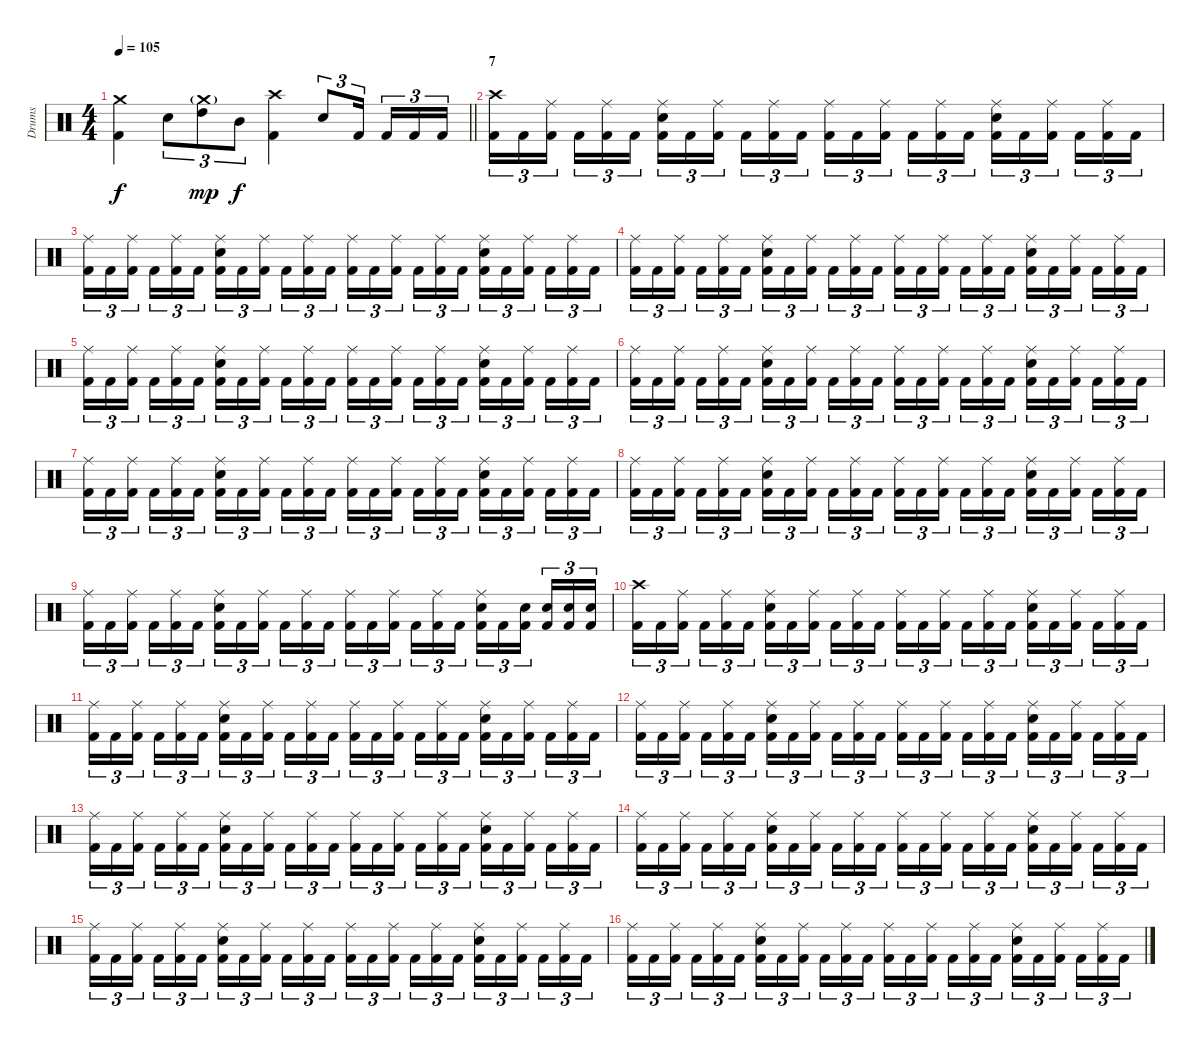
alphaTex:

\track ("Drums" "Drums") {instrument percussion}
\staff {score}
\articulation defaults
\ts (4 4)
\tempo 105
\clef neutral
\barLineRight lightlight
\ks c
("Crash medium (hit)" "Kick (hit) 2").4{dy f} "Electric Snare (hit)".8{tu (3 2)} ("Crash medium (hit)"{g} "High Tom (hit)").8{tu (3 2) dy mp} "Mid Tom (hit)".8{tu (3 2) dy f} ("Crash high (hit)" "Kick (hit) 2").4 "Electric Snare (hit)".8{tu (3 2)} "Kick (hit) 2".16{tu (3 2) beam splitsecondary} "Kick (hit) 2".16{tu (3 2)} "Kick (hit) 2".16{tu (3 2)} "Kick (hit) 2".16{tu (3 2)} |
\section ("" "7")
("Crash high (hit)" "Kick (hit) 2").16{tu (3 2)} "Kick (hit) 2".16{tu (3 2)} ("Ride (middle)" "Kick (hit) 2").16{tu (3 2) beam splitsecondary} "Kick (hit) 2".16{tu (3 2)} ("Ride (middle)" "Kick (hit) 2").16{tu (3 2)} "Kick (hit) 2".16{tu (3 2)} ("Ride (middle)" "Electric Snare (hit)" "Kick (hit) 2").16{tu (3 2)} "Kick (hit) 2".16{tu (3 2)} ("Ride (middle)" "Kick (hit) 2").16{tu (3 2) beam splitsecondary} "Kick (hit) 2".16{tu (3 2)} ("Ride (middle)" "Kick (hit) 2").16{tu (3 2)} "Kick (hit) 2".16{tu (3 2)} ("Ride (middle)" "Kick (hit) 2").16{tu (3 2)} "Kick (hit) 2".16{tu (3 2)} ("Ride (middle)" "Kick (hit) 2").16{tu (3 2) beam splitsecondary} "Kick (hit) 2".16{tu (3 2)} ("Ride (middle)" "Kick (hit) 2").16{tu (3 2)} "Kick (hit) 2".16{tu (3 2)} ("Ride (middle)" "Electric Snare (hit)" "Kick (hit) 2").16{tu (3 2)} "Kick (hit) 2".16{tu (3 2)} ("Ride (middle)" "Kick (hit) 2").16{tu (3 2) beam splitsecondary} "Kick (hit) 2".16{tu (3 2)} ("Ride (middle)" "Kick (hit) 2").16{tu (3 2)} "Kick (hit) 2".16{tu (3 2)} |
("Ride (middle)" "Kick (hit) 2").16{tu (3 2)} "Kick (hit) 2".16{tu (3 2)} ("Ride (middle)" "Kick (hit) 2").16{tu (3 2) beam splitsecondary} "Kick (hit) 2".16{tu (3 2)} ("Ride (middle)" "Kick (hit) 2").16{tu (3 2)} "Kick (hit) 2".16{tu (3 2)} ("Ride (middle)" "Electric Snare (hit)" "Kick (hit) 2").16{tu (3 2)} "Kick (hit) 2".16{tu (3 2)} ("Ride (middle)" "Kick (hit) 2").16{tu (3 2) beam splitsecondary} "Kick (hit) 2".16{tu (3 2)} ("Ride (middle)" "Kick (hit) 2").16{tu (3 2)} "Kick (hit) 2".16{tu (3 2)} ("Ride (middle)" "Kick (hit) 2").16{tu (3 2)} "Kick (hit) 2".16{tu (3 2)} ("Ride (middle)" "Kick (hit) 2").16{tu (3 2) beam splitsecondary} "Kick (hit) 2".16{tu (3 2)} ("Ride (middle)" "Kick (hit) 2").16{tu (3 2)} "Kick (hit) 2".16{tu (3 2)} ("Ride (middle)" "Electric Snare (hit)" "Kick (hit) 2").16{tu (3 2)} "Kick (hit) 2".16{tu (3 2)} ("Ride (middle)" "Kick (hit) 2").16{tu (3 2) beam splitsecondary} "Kick (hit) 2".16{tu (3 2)} ("Ride (middle)" "Kick (hit) 2").16{tu (3 2)} "Kick (hit) 2".16{tu (3 2)} |
("Ride (middle)" "Kick (hit) 2").16{tu (3 2)} "Kick (hit) 2".16{tu (3 2)} ("Ride (middle)" "Kick (hit) 2").16{tu (3 2) beam splitsecondary} "Kick (hit) 2".16{tu (3 2)} ("Ride (middle)" "Kick (hit) 2").16{tu (3 2)} "Kick (hit) 2".16{tu (3 2)} ("Ride (middle)" "Electric Snare (hit)" "Kick (hit) 2").16{tu (3 2)} "Kick (hit) 2".16{tu (3 2)} ("Ride (middle)" "Kick (hit) 2").16{tu (3 2) beam splitsecondary} "Kick (hit) 2".16{tu (3 2)} ("Ride (middle)" "Kick (hit) 2").16{tu (3 2)} "Kick (hit) 2".16{tu (3 2)} ("Ride (middle)" "Kick (hit) 2").16{tu (3 2)} "Kick (hit) 2".16{tu (3 2)} ("Ride (middle)" "Kick (hit) 2").16{tu (3 2) beam splitsecondary} "Kick (hit) 2".16{tu (3 2)} ("Ride (middle)" "Kick (hit) 2").16{tu (3 2)} "Kick (hit) 2".16{tu (3 2)} ("Ride (middle)" "Electric Snare (hit)" "Kick (hit) 2").16{tu (3 2)} "Kick (hit) 2".16{tu (3 2)} ("Ride (middle)" "Kick (hit) 2").16{tu (3 2) beam splitsecondary} "Kick (hit) 2".16{tu (3 2)} ("Ride (middle)" "Kick (hit) 2").16{tu (3 2)} "Kick (hit) 2".16{tu (3 2)} |
("Ride (middle)" "Kick (hit) 2").16{tu (3 2)} "Kick (hit) 2".16{tu (3 2)} ("Ride (middle)" "Kick (hit) 2").16{tu (3 2) beam splitsecondary} "Kick (hit) 2".16{tu (3 2)} ("Ride (middle)" "Kick (hit) 2").16{tu (3 2)} "Kick (hit) 2".16{tu (3 2)} ("Ride (middle)" "Electric Snare (hit)" "Kick (hit) 2").16{tu (3 2)} "Kick (hit) 2".16{tu (3 2)} ("Ride (middle)" "Kick (hit) 2").16{tu (3 2) beam splitsecondary} "Kick (hit) 2".16{tu (3 2)} ("Ride (middle)" "Kick (hit) 2").16{tu (3 2)} "Kick (hit) 2".16{tu (3 2)} ("Ride (middle)" "Kick (hit) 2").16{tu (3 2)} "Kick (hit) 2".16{tu (3 2)} ("Ride (middle)" "Kick (hit) 2").16{tu (3 2) beam splitsecondary} "Kick (hit) 2".16{tu (3 2)} ("Ride (middle)" "Kick (hit) 2").16{tu (3 2)} "Kick (hit) 2".16{tu (3 2)} ("Ride (middle)" "Electric Snare (hit)" "Kick (hit) 2").16{tu (3 2)} "Kick (hit) 2".16{tu (3 2)} ("Ride (middle)" "Kick (hit) 2").16{tu (3 2) beam splitsecondary} "Kick (hit) 2".16{tu (3 2)} ("Ride (middle)" "Kick (hit) 2").16{tu (3 2)} "Kick (hit) 2".16{tu (3 2)} |
("Ride (middle)" "Kick (hit) 2").16{tu (3 2)} "Kick (hit) 2".16{tu (3 2)} ("Ride (middle)" "Kick (hit) 2").16{tu (3 2) beam splitsecondary} "Kick (hit) 2".16{tu (3 2)} ("Ride (middle)" "Kick (hit) 2").16{tu (3 2)} "Kick (hit) 2".16{tu (3 2)} ("Ride (middle)" "Electric Snare (hit)" "Kick (hit) 2").16{tu (3 2)} "Kick (hit) 2".16{tu (3 2)} ("Ride (middle)" "Kick (hit) 2").16{tu (3 2) beam splitsecondary} "Kick (hit) 2".16{tu (3 2)} ("Ride (middle)" "Kick (hit) 2").16{tu (3 2)} "Kick (hit) 2".16{tu (3 2)} ("Ride (middle)" "Kick (hit) 2").16{tu (3 2)} "Kick (hit) 2".16{tu (3 2)} ("Ride (middle)" "Kick (hit) 2").16{tu (3 2) beam splitsecondary} "Kick (hit) 2".16{tu (3 2)} ("Ride (middle)" "Kick (hit) 2").16{tu (3 2)} "Kick (hit) 2".16{tu (3 2)} ("Ride (middle)" "Electric Snare (hit)" "Kick (hit) 2").16{tu (3 2)} "Kick (hit) 2".16{tu (3 2)} ("Ride (middle)" "Kick (hit) 2").16{tu (3 2) beam splitsecondary} "Kick (hit) 2".16{tu (3 2)} ("Ride (middle)" "Kick (hit) 2").16{tu (3 2)} "Kick (hit) 2".16{tu (3 2)} |
("Ride (middle)" "Kick (hit) 2").16{tu (3 2)} "Kick (hit) 2".16{tu (3 2)} ("Ride (middle)" "Kick (hit) 2").16{tu (3 2) beam splitsecondary} "Kick (hit) 2".16{tu (3 2)} ("Ride (middle)" "Kick (hit) 2").16{tu (3 2)} "Kick (hit) 2".16{tu (3 2)} ("Ride (middle)" "Electric Snare (hit)" "Kick (hit) 2").16{tu (3 2)} "Kick (hit) 2".16{tu (3 2)} ("Ride (middle)" "Kick (hit) 2").16{tu (3 2) beam splitsecondary} "Kick (hit) 2".16{tu (3 2)} ("Ride (middle)" "Kick (hit) 2").16{tu (3 2)} "Kick (hit) 2".16{tu (3 2)} ("Ride (middle)" "Kick (hit) 2").16{tu (3 2)} "Kick (hit) 2".16{tu (3 2)} ("Ride (middle)" "Kick (hit) 2").16{tu (3 2) beam splitsecondary} "Kick (hit) 2".16{tu (3 2)} ("Ride (middle)" "Kick (hit) 2").16{tu (3 2)} "Kick (hit) 2".16{tu (3 2)} ("Ride (middle)" "Electric Snare (hit)" "Kick (hit) 2").16{tu (3 2)} "Kick (hit) 2".16{tu (3 2)} ("Ride (middle)" "Kick (hit) 2").16{tu (3 2) beam splitsecondary} "Kick (hit) 2".16{tu (3 2)} ("Ride (middle)" "Kick (hit) 2").16{tu (3 2)} "Kick (hit) 2".16{tu (3 2)} |
("Ride (middle)" "Kick (hit) 2").16{tu (3 2)} "Kick (hit) 2".16{tu (3 2)} ("Ride (middle)" "Kick (hit) 2").16{tu (3 2) beam splitsecondary} "Kick (hit) 2".16{tu (3 2)} ("Ride (middle)" "Kick (hit) 2").16{tu (3 2)} "Kick (hit) 2".16{tu (3 2)} ("Ride (middle)" "Electric Snare (hit)" "Kick (hit) 2").16{tu (3 2)} "Kick (hit) 2".16{tu (3 2)} ("Ride (middle)" "Kick (hit) 2").16{tu (3 2) beam splitsecondary} "Kick (hit) 2".16{tu (3 2)} ("Ride (middle)" "Kick (hit) 2").16{tu (3 2)} "Kick (hit) 2".16{tu (3 2)} ("Ride (middle)" "Kick (hit) 2").16{tu (3 2)} "Kick (hit) 2".16{tu (3 2)} ("Ride (middle)" "Kick (hit) 2").16{tu (3 2) beam splitsecondary} "Kick (hit) 2".16{tu (3 2)} ("Ride (middle)" "Kick (hit) 2").16{tu (3 2)} "Kick (hit) 2".16{tu (3 2)} ("Ride (middle)" "Electric Snare (hit)" "Kick (hit) 2").16{tu (3 2)} "Kick (hit) 2".16{tu (3 2)} ("Ride (middle)" "Kick (hit) 2").16{tu (3 2) beam splitsecondary} "Kick (hit) 2".16{tu (3 2)} ("Ride (middle)" "Kick (hit) 2").16{tu (3 2)} "Kick (hit) 2".16{tu (3 2)} |
("Ride (middle)" "Kick (hit) 2").16{tu (3 2)} "Kick (hit) 2".16{tu (3 2)} ("Ride (middle)" "Kick (hit) 2").16{tu (3 2) beam splitsecondary} "Kick (hit) 2".16{tu (3 2)} ("Ride (middle)" "Kick (hit) 2").16{tu (3 2)} "Kick (hit) 2".16{tu (3 2)} ("Ride (middle)" "Electric Snare (hit)" "Kick (hit) 2").16{tu (3 2)} "Kick (hit) 2".16{tu (3 2)} ("Ride (middle)" "Kick (hit) 2").16{tu (3 2) beam splitsecondary} "Kick (hit) 2".16{tu (3 2)} ("Ride (middle)" "Kick (hit) 2").16{tu (3 2)} "Kick (hit) 2".16{tu (3 2)} ("Ride (middle)" "Kick (hit) 2").16{tu (3 2)} "Kick (hit) 2".16{tu (3 2)} ("Ride (middle)" "Kick (hit) 2").16{tu (3 2) beam splitsecondary} "Kick (hit) 2".16{tu (3 2)} ("Ride (middle)" "Kick (hit) 2").16{tu (3 2)} "Kick (hit) 2".16{tu (3 2)} ("Ride (middle)" "Electric Snare (hit)" "Kick (hit) 2").16{tu (3 2)} "Kick (hit) 2".16{tu (3 2)} ("Electric Snare (hit)" "Kick (hit) 2").16{tu (3 2) beam splitsecondary} ("Electric Snare (hit)" "Kick (hit) 2").16{tu (3 2)} ("Electric Snare (hit)" "Kick (hit) 2").16{tu (3 2)} ("Electric Snare (hit)" "Kick (hit) 2").16{tu (3 2)} |
("Crash high (hit)" "Kick (hit) 2").16{tu (3 2)} "Kick (hit) 2".16{tu (3 2)} ("Ride (middle)" "Kick (hit) 2").16{tu (3 2) beam splitsecondary} "Kick (hit) 2".16{tu (3 2)} ("Ride (middle)" "Kick (hit) 2").16{tu (3 2)} "Kick (hit) 2".16{tu (3 2)} ("Ride (middle)" "Electric Snare (hit)" "Kick (hit) 2").16{tu (3 2)} "Kick (hit) 2".16{tu (3 2)} ("Ride (middle)" "Kick (hit) 2").16{tu (3 2) beam splitsecondary} "Kick (hit) 2".16{tu (3 2)} ("Ride (middle)" "Kick (hit) 2").16{tu (3 2)} "Kick (hit) 2".16{tu (3 2)} ("Ride (middle)" "Kick (hit) 2").16{tu (3 2)} "Kick (hit) 2".16{tu (3 2)} ("Ride (middle)" "Kick (hit) 2").16{tu (3 2) beam splitsecondary} "Kick (hit) 2".16{tu (3 2)} ("Ride (middle)" "Kick (hit) 2").16{tu (3 2)} "Kick (hit) 2".16{tu (3 2)} ("Ride (middle)" "Electric Snare (hit)" "Kick (hit) 2").16{tu (3 2)} "Kick (hit) 2".16{tu (3 2)} ("Ride (middle)" "Kick (hit) 2").16{tu (3 2) beam splitsecondary} "Kick (hit) 2".16{tu (3 2)} ("Ride (middle)" "Kick (hit) 2").16{tu (3 2)} "Kick (hit) 2".16{tu (3 2)} |
("Ride (middle)" "Kick (hit) 2").16{tu (3 2)} "Kick (hit) 2".16{tu (3 2)} ("Ride (middle)" "Kick (hit) 2").16{tu (3 2) beam splitsecondary} "Kick (hit) 2".16{tu (3 2)} ("Ride (middle)" "Kick (hit) 2").16{tu (3 2)} "Kick (hit) 2".16{tu (3 2)} ("Ride (middle)" "Electric Snare (hit)" "Kick (hit) 2").16{tu (3 2)} "Kick (hit) 2".16{tu (3 2)} ("Ride (middle)" "Kick (hit) 2").16{tu (3 2) beam splitsecondary} "Kick (hit) 2".16{tu (3 2)} ("Ride (middle)" "Kick (hit) 2").16{tu (3 2)} "Kick (hit) 2".16{tu (3 2)} ("Ride (middle)" "Kick (hit) 2").16{tu (3 2)} "Kick (hit) 2".16{tu (3 2)} ("Ride (middle)" "Kick (hit) 2").16{tu (3 2) beam splitsecondary} "Kick (hit) 2".16{tu (3 2)} ("Ride (middle)" "Kick (hit) 2").16{tu (3 2)} "Kick (hit) 2".16{tu (3 2)} ("Ride (middle)" "Electric Snare (hit)" "Kick (hit) 2").16{tu (3 2)} "Kick (hit) 2".16{tu (3 2)} ("Ride (middle)" "Kick (hit) 2").16{tu (3 2) beam splitsecondary} "Kick (hit) 2".16{tu (3 2)} ("Ride (middle)" "Kick (hit) 2").16{tu (3 2)} "Kick (hit) 2".16{tu (3 2)} |
("Ride (middle)" "Kick (hit) 2").16{tu (3 2)} "Kick (hit) 2".16{tu (3 2)} ("Ride (middle)" "Kick (hit) 2").16{tu (3 2) beam splitsecondary} "Kick (hit) 2".16{tu (3 2)} ("Ride (middle)" "Kick (hit) 2").16{tu (3 2)} "Kick (hit) 2".16{tu (3 2)} ("Ride (middle)" "Electric Snare (hit)" "Kick (hit) 2").16{tu (3 2)} "Kick (hit) 2".16{tu (3 2)} ("Ride (middle)" "Kick (hit) 2").16{tu (3 2) beam splitsecondary} "Kick (hit) 2".16{tu (3 2)} ("Ride (middle)" "Kick (hit) 2").16{tu (3 2)} "Kick (hit) 2".16{tu (3 2)} ("Ride (middle)" "Kick (hit) 2").16{tu (3 2)} "Kick (hit) 2".16{tu (3 2)} ("Ride (middle)" "Kick (hit) 2").16{tu (3 2) beam splitsecondary} "Kick (hit) 2".16{tu (3 2)} ("Ride (middle)" "Kick (hit) 2").16{tu (3 2)} "Kick (hit) 2".16{tu (3 2)} ("Ride (middle)" "Electric Snare (hit)" "Kick (hit) 2").16{tu (3 2)} "Kick (hit) 2".16{tu (3 2)} ("Ride (middle)" "Kick (hit) 2").16{tu (3 2) beam splitsecondary} "Kick (hit) 2".16{tu (3 2)} ("Ride (middle)" "Kick (hit) 2").16{tu (3 2)} "Kick (hit) 2".16{tu (3 2)} |
("Ride (middle)" "Kick (hit) 2").16{tu (3 2)} "Kick (hit) 2".16{tu (3 2)} ("Ride (middle)" "Kick (hit) 2").16{tu (3 2) beam splitsecondary} "Kick (hit) 2".16{tu (3 2)} ("Ride (middle)" "Kick (hit) 2").16{tu (3 2)} "Kick (hit) 2".16{tu (3 2)} ("Ride (middle)" "Electric Snare (hit)" "Kick (hit) 2").16{tu (3 2)} "Kick (hit) 2".16{tu (3 2)} ("Ride (middle)" "Kick (hit) 2").16{tu (3 2) beam splitsecondary} "Kick (hit) 2".16{tu (3 2)} ("Ride (middle)" "Kick (hit) 2").16{tu (3 2)} "Kick (hit) 2".16{tu (3 2)} ("Ride (middle)" "Kick (hit) 2").16{tu (3 2)} "Kick (hit) 2".16{tu (3 2)} ("Ride (middle)" "Kick (hit) 2").16{tu (3 2) beam splitsecondary} "Kick (hit) 2".16{tu (3 2)} ("Ride (middle)" "Kick (hit) 2").16{tu (3 2)} "Kick (hit) 2".16{tu (3 2)} ("Ride (middle)" "Electric Snare (hit)" "Kick (hit) 2").16{tu (3 2)} "Kick (hit) 2".16{tu (3 2)} ("Ride (middle)" "Kick (hit) 2").16{tu (3 2) beam splitsecondary} "Kick (hit) 2".16{tu (3 2)} ("Ride (middle)" "Kick (hit) 2").16{tu (3 2)} "Kick (hit) 2".16{tu (3 2)} |
("Ride (middle)" "Kick (hit) 2").16{tu (3 2)} "Kick (hit) 2".16{tu (3 2)} ("Ride (middle)" "Kick (hit) 2").16{tu (3 2) beam splitsecondary} "Kick (hit) 2".16{tu (3 2)} ("Ride (middle)" "Kick (hit) 2").16{tu (3 2)} "Kick (hit) 2".16{tu (3 2)} ("Ride (middle)" "Electric Snare (hit)" "Kick (hit) 2").16{tu (3 2)} "Kick (hit) 2".16{tu (3 2)} ("Ride (middle)" "Kick (hit) 2").16{tu (3 2) beam splitsecondary} "Kick (hit) 2".16{tu (3 2)} ("Ride (middle)" "Kick (hit) 2").16{tu (3 2)} "Kick (hit) 2".16{tu (3 2)} ("Ride (middle)" "Kick (hit) 2").16{tu (3 2)} "Kick (hit) 2".16{tu (3 2)} ("Ride (middle)" "Kick (hit) 2").16{tu (3 2) beam splitsecondary} "Kick (hit) 2".16{tu (3 2)} ("Ride (middle)" "Kick (hit) 2").16{tu (3 2)} "Kick (hit) 2".16{tu (3 2)} ("Ride (middle)" "Electric Snare (hit)" "Kick (hit) 2").16{tu (3 2)} "Kick (hit) 2".16{tu (3 2)} ("Ride (middle)" "Kick (hit) 2").16{tu (3 2) beam splitsecondary} "Kick (hit) 2".16{tu (3 2)} ("Ride (middle)" "Kick (hit) 2").16{tu (3 2)} "Kick (hit) 2".16{tu (3 2)} |
("Ride (middle)" "Kick (hit) 2").16{tu (3 2)} "Kick (hit) 2".16{tu (3 2)} ("Ride (middle)" "Kick (hit) 2").16{tu (3 2) beam splitsecondary} "Kick (hit) 2".16{tu (3 2)} ("Ride (middle)" "Kick (hit) 2").16{tu (3 2)} "Kick (hit) 2".16{tu (3 2)} ("Ride (middle)" "Electric Snare (hit)" "Kick (hit) 2").16{tu (3 2)} "Kick (hit) 2".16{tu (3 2)} ("Ride (middle)" "Kick (hit) 2").16{tu (3 2) beam splitsecondary} "Kick (hit) 2".16{tu (3 2)} ("Ride (middle)" "Kick (hit) 2").16{tu (3 2)} "Kick (hit) 2".16{tu (3 2)} ("Ride (middle)" "Kick (hit) 2").16{tu (3 2)} "Kick (hit) 2".16{tu (3 2)} ("Ride (middle)" "Kick (hit) 2").16{tu (3 2) beam splitsecondary} "Kick (hit) 2".16{tu (3 2)} ("Ride (middle)" "Kick (hit) 2").16{tu (3 2)} "Kick (hit) 2".16{tu (3 2)} ("Ride (middle)" "Electric Snare (hit)" "Kick (hit) 2").16{tu (3 2)} "Kick (hit) 2".16{tu (3 2)} ("Ride (middle)" "Kick (hit) 2").16{tu (3 2) beam splitsecondary} "Kick (hit) 2".16{tu (3 2)} ("Ride (middle)" "Kick (hit) 2").16{tu (3 2)} "Kick (hit) 2".16{tu (3 2)} |
("Ride (middle)" "Kick (hit) 2").16{tu (3 2)} "Kick (hit) 2".16{tu (3 2)} ("Ride (middle)" "Kick (hit) 2").16{tu (3 2) beam splitsecondary} "Kick (hit) 2".16{tu (3 2)} ("Ride (middle)" "Kick (hit) 2").16{tu (3 2)} "Kick (hit) 2".16{tu (3 2)} ("Ride (middle)" "Electric Snare (hit)" "Kick (hit) 2").16{tu (3 2)} "Kick (hit) 2".16{tu (3 2)} ("Ride (middle)" "Kick (hit) 2").16{tu (3 2) beam splitsecondary} "Kick (hit) 2".16{tu (3 2)} ("Ride (middle)" "Kick (hit) 2").16{tu (3 2)} "Kick (hit) 2".16{tu (3 2)} ("Ride (middle)" "Kick (hit) 2").16{tu (3 2)} "Kick (hit) 2".16{tu (3 2)} ("Ride (middle)" "Kick (hit) 2").16{tu (3 2) beam splitsecondary} "Kick (hit) 2".16{tu (3 2)} ("Ride (middle)" "Kick (hit) 2").16{tu (3 2)} "Kick (hit) 2".16{tu (3 2)} ("Ride (middle)" "Electric Snare (hit)" "Kick (hit) 2").16{tu (3 2)} "Kick (hit) 2".16{tu (3 2)} ("Ride (middle)" "Kick (hit) 2").16{tu (3 2) beam splitsecondary} "Kick (hit) 2".16{tu (3 2)} ("Ride (middle)" "Kick (hit) 2").16{tu (3 2)} "Kick (hit) 2".16{tu (3 2)}
